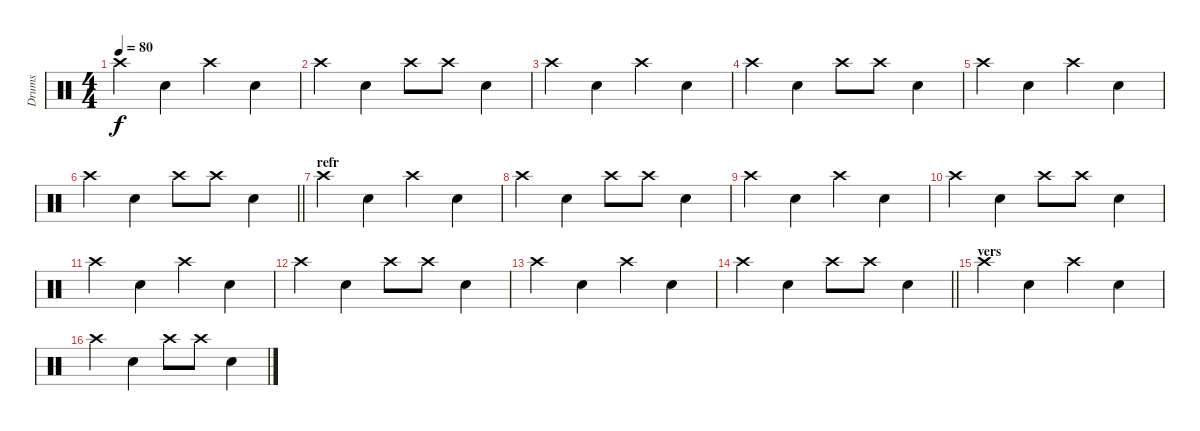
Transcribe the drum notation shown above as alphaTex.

\track ("Drums" "Drums") {instrument percussion}
\staff {score}
\articulation defaults
\ts (4 4)
\tempo 80
\clef neutral
\ks c "Crash high (hit)".4{dy f} "Snare (hit) 2".4 "Crash high (hit)".4 "Snare (hit) 2".4
|
"Crash high (hit)".4 "Snare (hit) 2".4 "Crash high (hit)".8 "Crash high (hit)".8 "Snare (hit) 2".4 |
"Crash high (hit)".4 "Snare (hit) 2".4 "Crash high (hit)".4 "Snare (hit) 2".4 |
"Crash high (hit)".4 "Snare (hit) 2".4 "Crash high (hit)".8 "Crash high (hit)".8 "Snare (hit) 2".4 |
"Crash high (hit)".4 "Snare (hit) 2".4 "Crash high (hit)".4 "Snare (hit) 2".4 |
\barLineRight lightlight "Crash high (hit)".4 "Snare (hit) 2".4 "Crash high (hit)".8 "Crash high (hit)".8 "Snare (hit) 2".4
|
\section ("" "refr")
"Crash high (hit)".4 "Snare (hit) 2".4 "Crash high (hit)".4 "Snare (hit) 2".4 |
"Crash high (hit)".4 "Snare (hit) 2".4 "Crash high (hit)".8 "Crash high (hit)".8 "Snare (hit) 2".4 |
"Crash high (hit)".4 "Snare (hit) 2".4 "Crash high (hit)".4 "Snare (hit) 2".4 |
"Crash high (hit)".4 "Snare (hit) 2".4 "Crash high (hit)".8 "Crash high (hit)".8 "Snare (hit) 2".4 |
"Crash high (hit)".4 "Snare (hit) 2".4 "Crash high (hit)".4 "Snare (hit) 2".4 |
"Crash high (hit)".4 "Snare (hit) 2".4 "Crash high (hit)".8 "Crash high (hit)".8 "Snare (hit) 2".4 |
"Crash high (hit)".4 "Snare (hit) 2".4 "Crash high (hit)".4 "Snare (hit) 2".4 |
\barLineRight lightlight "Crash high (hit)".4 "Snare (hit) 2".4 "Crash high (hit)".8 "Crash high (hit)".8 "Snare (hit) 2".4
|
\section ("" "vers")
"Crash high (hit)".4 "Snare (hit) 2".4 "Crash high (hit)".4 "Snare (hit) 2".4 |
"Crash high (hit)".4 "Snare (hit) 2".4 "Crash high (hit)".8 "Crash high (hit)".8 "Snare (hit) 2".4
